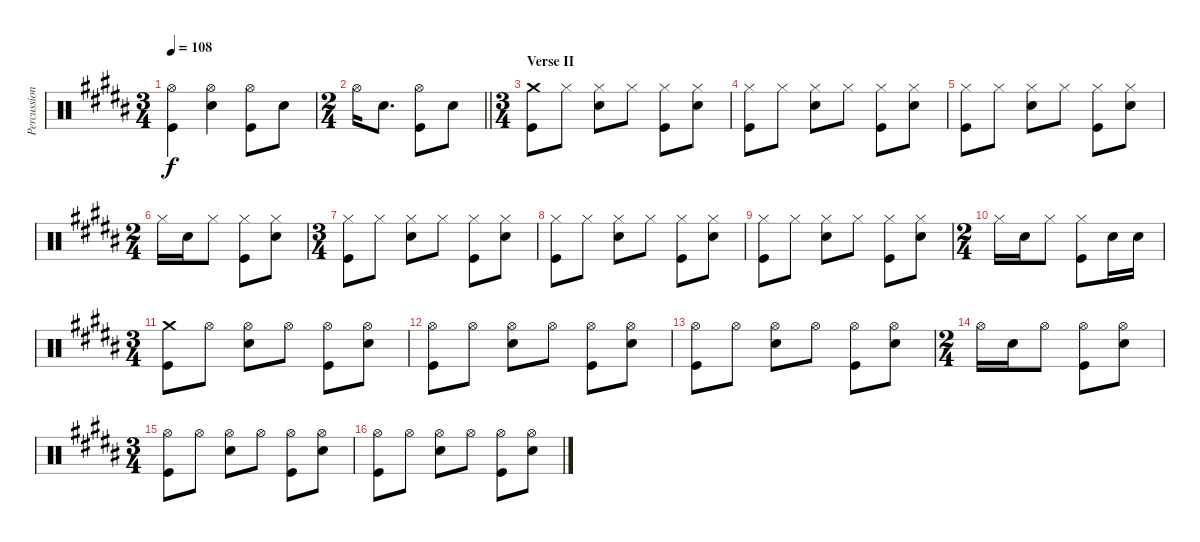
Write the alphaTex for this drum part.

\track ("Percussion" "Percussion") {instrument percussion}
\staff {score}
\articulation defaults
\ts (3 4)
\tempo 108
\clef neutral
\ks b
("Hi-Hat (open)" "Kick (hit)").4{dy f} ("Hi-Hat (open)" "Electric Snare (hit)").4 ("Hi-Hat (open)" "Kick (hit)").8 "Electric Snare (hit)".8 |
\ts (2 4)
\barLineRight lightlight "Hi-Hat (open)".16 "Electric Snare (hit)".8{d}
("Hi-Hat (open)" "Kick (hit)").8 "Electric Snare (hit)".8 |
\ts (3 4)
\section ("" "Verse II")
("Crash medium (hit)" "Kick (hit)").8 "Hi-Hat (closed)".8 ("Hi-Hat (closed)" "Electric Snare (hit)").8 "Hi-Hat (closed)".8 ("Hi-Hat (closed)" "Kick (hit)").8 ("Hi-Hat (closed)" "Electric Snare (hit)").8 |
("Hi-Hat (closed)" "Kick (hit)").8 "Hi-Hat (closed)".8 ("Hi-Hat (closed)" "Electric Snare (hit)").8 "Hi-Hat (closed)".8 ("Hi-Hat (closed)" "Kick (hit)").8 ("Hi-Hat (closed)" "Electric Snare (hit)").8 |
("Hi-Hat (closed)" "Kick (hit)").8 "Hi-Hat (closed)".8 ("Hi-Hat (closed)" "Electric Snare (hit)").8 "Hi-Hat (closed)".8 ("Hi-Hat (closed)" "Kick (hit)").8 ("Hi-Hat (closed)" "Electric Snare (hit)").8 |
\ts (2 4)
"Hi-Hat (closed)".16 "Electric Snare (hit)".16 "Hi-Hat (closed)".8 ("Hi-Hat (closed)" "Kick (hit)").8 ("Hi-Hat (closed)" "Electric Snare (hit)").8 |
\ts (3 4)
("Hi-Hat (closed)" "Kick (hit)").8 "Hi-Hat (closed)".8 ("Hi-Hat (closed)" "Electric Snare (hit)").8 "Hi-Hat (closed)".8 ("Hi-Hat (closed)" "Kick (hit)").8 ("Hi-Hat (closed)" "Electric Snare (hit)").8 |
("Hi-Hat (closed)" "Kick (hit)").8 "Hi-Hat (closed)".8 ("Hi-Hat (closed)" "Electric Snare (hit)").8 "Hi-Hat (closed)".8 ("Hi-Hat (closed)" "Kick (hit)").8 ("Hi-Hat (closed)" "Electric Snare (hit)").8 |
("Hi-Hat (closed)" "Kick (hit)").8 "Hi-Hat (closed)".8 ("Hi-Hat (closed)" "Electric Snare (hit)").8 "Hi-Hat (closed)".8 ("Hi-Hat (closed)" "Kick (hit)").8 ("Hi-Hat (closed)" "Electric Snare (hit)").8 |
\ts (2 4)
"Hi-Hat (closed)".16 "Electric Snare (hit)".16 "Hi-Hat (closed)".8 ("Hi-Hat (closed)" "Kick (hit)").8 "Electric Snare (hit)".16 "Electric Snare (hit)".16 |
\ts (3 4)
("Crash medium (hit)" "Kick (hit)").8 "Hi-Hat (open)".8 ("Hi-Hat (open)" "Electric Snare (hit)").8 "Hi-Hat (open)".8 ("Hi-Hat (open)" "Kick (hit)").8 ("Hi-Hat (open)" "Electric Snare (hit)").8 |
("Hi-Hat (open)" "Kick (hit)").8 "Hi-Hat (open)".8 ("Hi-Hat (open)" "Electric Snare (hit)").8 "Hi-Hat (open)".8 ("Hi-Hat (open)" "Kick (hit)").8 ("Hi-Hat (open)" "Electric Snare (hit)").8 |
("Hi-Hat (open)" "Kick (hit)").8 "Hi-Hat (open)".8 ("Hi-Hat (open)" "Electric Snare (hit)").8 "Hi-Hat (open)".8 ("Hi-Hat (open)" "Kick (hit)").8 ("Hi-Hat (open)" "Electric Snare (hit)").8 |
\ts (2 4)
"Hi-Hat (open)".16 "Electric Snare (hit)".16 "Hi-Hat (open)".8 ("Hi-Hat (open)" "Kick (hit)").8 ("Hi-Hat (open)" "Electric Snare (hit)").8 |
\ts (3 4)
("Hi-Hat (open)" "Kick (hit)").8 "Hi-Hat (open)".8 ("Hi-Hat (open)" "Electric Snare (hit)").8 "Hi-Hat (open)".8 ("Hi-Hat (open)" "Kick (hit)").8 ("Hi-Hat (open)" "Electric Snare (hit)").8 |
("Hi-Hat (open)" "Kick (hit)").8 "Hi-Hat (open)".8 ("Hi-Hat (open)" "Electric Snare (hit)").8 "Hi-Hat (open)".8 ("Hi-Hat (open)" "Kick (hit)").8 ("Hi-Hat (open)" "Electric Snare (hit)").8
